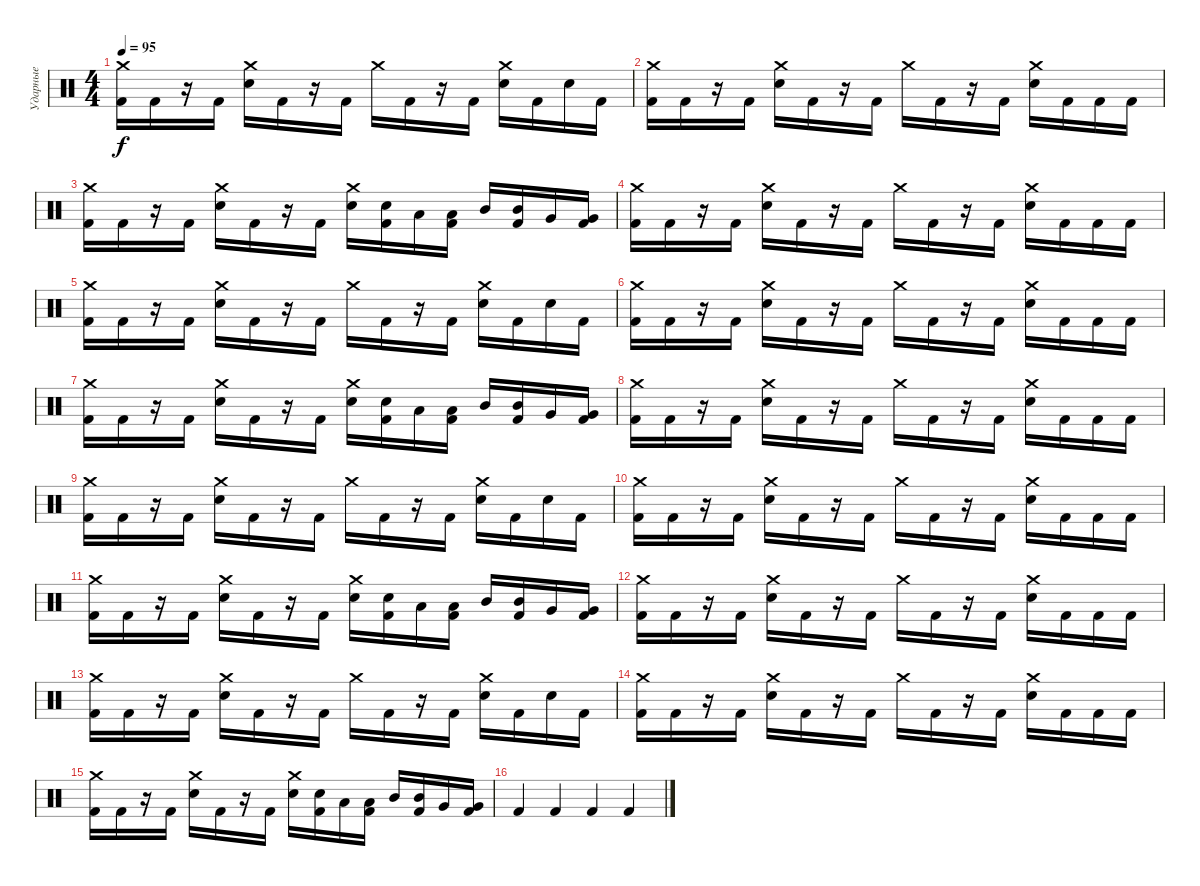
\track ("Ударные" "Ударные") {instrument percussion}
\staff {score}
\articulation defaults
\ts (4 4)
\tempo 95
\clef neutral
\ks c
("Crash medium (hit)" "Kick (hit) 2").16{dy f} "Kick (hit) 2".16 r.16 "Kick (hit) 2".16 ("Crash medium (hit)" "Electric Snare (hit)").16 "Kick (hit) 2".16 r.16 "Kick (hit) 2".16 "Crash medium (hit)".16 "Kick (hit) 2".16 r.16 "Kick (hit) 2".16 ("Crash medium (hit)" "Electric Snare (hit)").16 "Kick (hit) 2".16 "Electric Snare (hit)".16 "Kick (hit) 2".16 |
("Crash medium (hit)" "Kick (hit) 2").16 "Kick (hit) 2".16 r.16 "Kick (hit) 2".16 ("Crash medium (hit)" "Electric Snare (hit)").16 "Kick (hit) 2".16 r.16 "Kick (hit) 2".16 "Crash medium (hit)".16 "Kick (hit) 2".16 r.16 "Kick (hit) 2".16 ("Crash medium (hit)" "Electric Snare (hit)").16 "Kick (hit) 2".16 "Kick (hit) 2".16 "Kick (hit) 2".16 |
("Crash medium (hit)" "Kick (hit) 2").16 "Kick (hit) 2".16 r.16 "Kick (hit) 2".16 ("Crash medium (hit)" "Electric Snare (hit)").16 "Kick (hit) 2".16 r.16 "Kick (hit) 2".16 ("Crash medium (hit)" "Electric Snare (hit)").16 ("Electric Snare (hit)" "Kick (hit) 2").16 "Low Tom (hit)".16 ("Low Tom (hit)" "Kick (hit) 2").16 "Mid Tom (hit)".16 ("Mid Tom (hit)" "Kick (hit) 2").16 "Very Low Tom (hit)".16 ("Very Low Tom (hit)" "Kick (hit) 2").16 |
("Crash medium (hit)" "Kick (hit) 2").16 "Kick (hit) 2".16 r.16 "Kick (hit) 2".16 ("Crash medium (hit)" "Electric Snare (hit)").16 "Kick (hit) 2".16 r.16 "Kick (hit) 2".16 "Crash medium (hit)".16 "Kick (hit) 2".16 r.16 "Kick (hit) 2".16 ("Crash medium (hit)" "Electric Snare (hit)").16 "Kick (hit) 2".16 "Kick (hit) 2".16 "Kick (hit) 2".16 |
("Crash medium (hit)" "Kick (hit) 2").16 "Kick (hit) 2".16 r.16 "Kick (hit) 2".16 ("Crash medium (hit)" "Electric Snare (hit)").16 "Kick (hit) 2".16 r.16 "Kick (hit) 2".16 "Crash medium (hit)".16 "Kick (hit) 2".16 r.16 "Kick (hit) 2".16 ("Crash medium (hit)" "Electric Snare (hit)").16 "Kick (hit) 2".16 "Electric Snare (hit)".16 "Kick (hit) 2".16 |
("Crash medium (hit)" "Kick (hit) 2").16 "Kick (hit) 2".16 r.16 "Kick (hit) 2".16 ("Crash medium (hit)" "Electric Snare (hit)").16 "Kick (hit) 2".16 r.16 "Kick (hit) 2".16 "Crash medium (hit)".16 "Kick (hit) 2".16 r.16 "Kick (hit) 2".16 ("Crash medium (hit)" "Electric Snare (hit)").16 "Kick (hit) 2".16 "Kick (hit) 2".16 "Kick (hit) 2".16 |
("Crash medium (hit)" "Kick (hit) 2").16 "Kick (hit) 2".16 r.16 "Kick (hit) 2".16 ("Crash medium (hit)" "Electric Snare (hit)").16 "Kick (hit) 2".16 r.16 "Kick (hit) 2".16 ("Crash medium (hit)" "Electric Snare (hit)").16 ("Electric Snare (hit)" "Kick (hit) 2").16 "Low Tom (hit)".16 ("Low Tom (hit)" "Kick (hit) 2").16 "Mid Tom (hit)".16 ("Mid Tom (hit)" "Kick (hit) 2").16 "Very Low Tom (hit)".16 ("Very Low Tom (hit)" "Kick (hit) 2").16 |
("Crash medium (hit)" "Kick (hit) 2").16 "Kick (hit) 2".16 r.16 "Kick (hit) 2".16 ("Crash medium (hit)" "Electric Snare (hit)").16 "Kick (hit) 2".16 r.16 "Kick (hit) 2".16 "Crash medium (hit)".16 "Kick (hit) 2".16 r.16 "Kick (hit) 2".16 ("Crash medium (hit)" "Electric Snare (hit)").16 "Kick (hit) 2".16 "Kick (hit) 2".16 "Kick (hit) 2".16 |
("Crash medium (hit)" "Kick (hit) 2").16 "Kick (hit) 2".16 r.16 "Kick (hit) 2".16 ("Crash medium (hit)" "Electric Snare (hit)").16 "Kick (hit) 2".16 r.16 "Kick (hit) 2".16 "Crash medium (hit)".16 "Kick (hit) 2".16 r.16 "Kick (hit) 2".16 ("Crash medium (hit)" "Electric Snare (hit)").16 "Kick (hit) 2".16 "Electric Snare (hit)".16 "Kick (hit) 2".16 |
("Crash medium (hit)" "Kick (hit) 2").16 "Kick (hit) 2".16 r.16 "Kick (hit) 2".16 ("Crash medium (hit)" "Electric Snare (hit)").16 "Kick (hit) 2".16 r.16 "Kick (hit) 2".16 "Crash medium (hit)".16 "Kick (hit) 2".16 r.16 "Kick (hit) 2".16 ("Crash medium (hit)" "Electric Snare (hit)").16 "Kick (hit) 2".16 "Kick (hit) 2".16 "Kick (hit) 2".16 |
("Crash medium (hit)" "Kick (hit) 2").16 "Kick (hit) 2".16 r.16 "Kick (hit) 2".16 ("Crash medium (hit)" "Electric Snare (hit)").16 "Kick (hit) 2".16 r.16 "Kick (hit) 2".16 ("Crash medium (hit)" "Electric Snare (hit)").16 ("Electric Snare (hit)" "Kick (hit) 2").16 "Low Tom (hit)".16 ("Low Tom (hit)" "Kick (hit) 2").16 "Mid Tom (hit)".16 ("Mid Tom (hit)" "Kick (hit) 2").16 "Very Low Tom (hit)".16 ("Very Low Tom (hit)" "Kick (hit) 2").16 |
("Crash medium (hit)" "Kick (hit) 2").16 "Kick (hit) 2".16 r.16 "Kick (hit) 2".16 ("Crash medium (hit)" "Electric Snare (hit)").16 "Kick (hit) 2".16 r.16 "Kick (hit) 2".16 "Crash medium (hit)".16 "Kick (hit) 2".16 r.16 "Kick (hit) 2".16 ("Crash medium (hit)" "Electric Snare (hit)").16 "Kick (hit) 2".16 "Kick (hit) 2".16 "Kick (hit) 2".16 |
("Crash medium (hit)" "Kick (hit) 2").16 "Kick (hit) 2".16 r.16 "Kick (hit) 2".16 ("Crash medium (hit)" "Electric Snare (hit)").16 "Kick (hit) 2".16 r.16 "Kick (hit) 2".16 "Crash medium (hit)".16 "Kick (hit) 2".16 r.16 "Kick (hit) 2".16 ("Crash medium (hit)" "Electric Snare (hit)").16 "Kick (hit) 2".16 "Electric Snare (hit)".16 "Kick (hit) 2".16 |
("Crash medium (hit)" "Kick (hit) 2").16 "Kick (hit) 2".16 r.16 "Kick (hit) 2".16 ("Crash medium (hit)" "Electric Snare (hit)").16 "Kick (hit) 2".16 r.16 "Kick (hit) 2".16 "Crash medium (hit)".16 "Kick (hit) 2".16 r.16 "Kick (hit) 2".16 ("Crash medium (hit)" "Electric Snare (hit)").16 "Kick (hit) 2".16 "Kick (hit) 2".16 "Kick (hit) 2".16 |
("Crash medium (hit)" "Kick (hit) 2").16 "Kick (hit) 2".16 r.16 "Kick (hit) 2".16 ("Crash medium (hit)" "Electric Snare (hit)").16 "Kick (hit) 2".16 r.16 "Kick (hit) 2".16 ("Crash medium (hit)" "Electric Snare (hit)").16 ("Electric Snare (hit)" "Kick (hit) 2").16 "Low Tom (hit)".16 ("Low Tom (hit)" "Kick (hit) 2").16 "Mid Tom (hit)".16 ("Mid Tom (hit)" "Kick (hit) 2").16 "Very Low Tom (hit)".16 ("Very Low Tom (hit)" "Kick (hit) 2").16 |
"Kick (hit) 2".4 "Kick (hit) 2".4 "Kick (hit) 2".4 "Kick (hit) 2".4
